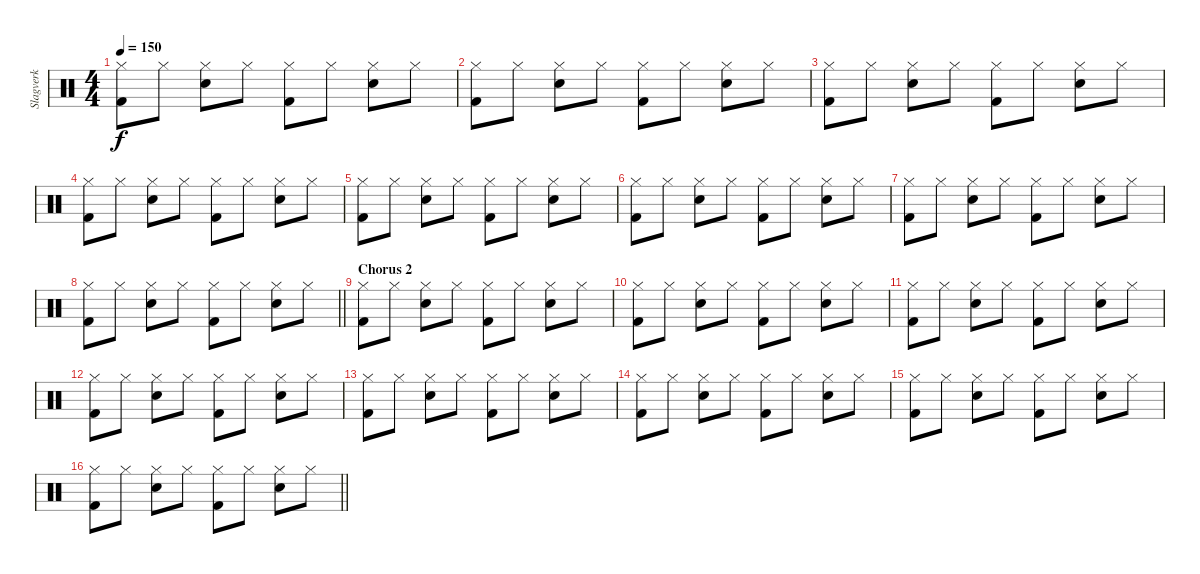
\track ("Slagverk" "Slagverk") {instrument percussion}
\staff {score}
\articulation defaults
\ts (4 4)
\tempo 150
\clef neutral
\ks c
("Kick (hit) 2" "Hi-Hat (closed)").8{dy f} "Hi-Hat (closed)".8 ("Snare (hit) 2" "Hi-Hat (closed)").8 "Hi-Hat (closed)".8 ("Kick (hit) 2" "Hi-Hat (closed)").8 "Hi-Hat (closed)".8 ("Snare (hit) 2" "Hi-Hat (closed)").8 "Hi-Hat (closed)".8 |
("Kick (hit) 2" "Hi-Hat (closed)").8 "Hi-Hat (closed)".8 ("Snare (hit) 2" "Hi-Hat (closed)").8 "Hi-Hat (closed)".8 ("Kick (hit) 2" "Hi-Hat (closed)").8 "Hi-Hat (closed)".8 ("Snare (hit) 2" "Hi-Hat (closed)").8 "Hi-Hat (closed)".8 |
("Kick (hit) 2" "Hi-Hat (closed)").8 "Hi-Hat (closed)".8 ("Snare (hit) 2" "Hi-Hat (closed)").8 "Hi-Hat (closed)".8 ("Kick (hit) 2" "Hi-Hat (closed)").8 "Hi-Hat (closed)".8 ("Snare (hit) 2" "Hi-Hat (closed)").8 "Hi-Hat (closed)".8 |
("Kick (hit) 2" "Hi-Hat (closed)").8 "Hi-Hat (closed)".8 ("Snare (hit) 2" "Hi-Hat (closed)").8 "Hi-Hat (closed)".8 ("Kick (hit) 2" "Hi-Hat (closed)").8 "Hi-Hat (closed)".8 ("Snare (hit) 2" "Hi-Hat (closed)").8 "Hi-Hat (closed)".8 |
("Kick (hit) 2" "Hi-Hat (closed)").8 "Hi-Hat (closed)".8 ("Snare (hit) 2" "Hi-Hat (closed)").8 "Hi-Hat (closed)".8 ("Kick (hit) 2" "Hi-Hat (closed)").8 "Hi-Hat (closed)".8 ("Snare (hit) 2" "Hi-Hat (closed)").8 "Hi-Hat (closed)".8 |
("Kick (hit) 2" "Hi-Hat (closed)").8 "Hi-Hat (closed)".8 ("Snare (hit) 2" "Hi-Hat (closed)").8 "Hi-Hat (closed)".8 ("Kick (hit) 2" "Hi-Hat (closed)").8 "Hi-Hat (closed)".8 ("Snare (hit) 2" "Hi-Hat (closed)").8 "Hi-Hat (closed)".8 |
("Kick (hit) 2" "Hi-Hat (closed)").8 "Hi-Hat (closed)".8 ("Snare (hit) 2" "Hi-Hat (closed)").8 "Hi-Hat (closed)".8 ("Kick (hit) 2" "Hi-Hat (closed)").8 "Hi-Hat (closed)".8 ("Snare (hit) 2" "Hi-Hat (closed)").8 "Hi-Hat (closed)".8 |
\barLineRight lightlight
("Kick (hit) 2" "Hi-Hat (closed)").8 "Hi-Hat (closed)".8 ("Snare (hit) 2" "Hi-Hat (closed)").8 "Hi-Hat (closed)".8 ("Kick (hit) 2" "Hi-Hat (closed)").8 "Hi-Hat (closed)".8 ("Snare (hit) 2" "Hi-Hat (closed)").8 "Hi-Hat (closed)".8 |
\section ("" "Chorus 2")
("Kick (hit) 2" "Hi-Hat (closed)").8 "Hi-Hat (closed)".8 ("Snare (hit) 2" "Hi-Hat (closed)").8 "Hi-Hat (closed)".8 ("Kick (hit) 2" "Hi-Hat (closed)").8 "Hi-Hat (closed)".8 ("Snare (hit) 2" "Hi-Hat (closed)").8 "Hi-Hat (closed)".8 |
("Kick (hit) 2" "Hi-Hat (closed)").8 "Hi-Hat (closed)".8 ("Snare (hit) 2" "Hi-Hat (closed)").8 "Hi-Hat (closed)".8 ("Kick (hit) 2" "Hi-Hat (closed)").8 "Hi-Hat (closed)".8 ("Snare (hit) 2" "Hi-Hat (closed)").8 "Hi-Hat (closed)".8 |
("Kick (hit) 2" "Hi-Hat (closed)").8 "Hi-Hat (closed)".8 ("Snare (hit) 2" "Hi-Hat (closed)").8 "Hi-Hat (closed)".8 ("Kick (hit) 2" "Hi-Hat (closed)").8 "Hi-Hat (closed)".8 ("Snare (hit) 2" "Hi-Hat (closed)").8 "Hi-Hat (closed)".8 |
("Kick (hit) 2" "Hi-Hat (closed)").8 "Hi-Hat (closed)".8 ("Snare (hit) 2" "Hi-Hat (closed)").8 "Hi-Hat (closed)".8 ("Kick (hit) 2" "Hi-Hat (closed)").8 "Hi-Hat (closed)".8 ("Snare (hit) 2" "Hi-Hat (closed)").8 "Hi-Hat (closed)".8 |
("Kick (hit) 2" "Hi-Hat (closed)").8 "Hi-Hat (closed)".8 ("Snare (hit) 2" "Hi-Hat (closed)").8 "Hi-Hat (closed)".8 ("Kick (hit) 2" "Hi-Hat (closed)").8 "Hi-Hat (closed)".8 ("Snare (hit) 2" "Hi-Hat (closed)").8 "Hi-Hat (closed)".8 |
("Kick (hit) 2" "Hi-Hat (closed)").8 "Hi-Hat (closed)".8 ("Snare (hit) 2" "Hi-Hat (closed)").8 "Hi-Hat (closed)".8 ("Kick (hit) 2" "Hi-Hat (closed)").8 "Hi-Hat (closed)".8 ("Snare (hit) 2" "Hi-Hat (closed)").8 "Hi-Hat (closed)".8 |
("Kick (hit) 2" "Hi-Hat (closed)").8 "Hi-Hat (closed)".8 ("Snare (hit) 2" "Hi-Hat (closed)").8 "Hi-Hat (closed)".8 ("Kick (hit) 2" "Hi-Hat (closed)").8 "Hi-Hat (closed)".8 ("Snare (hit) 2" "Hi-Hat (closed)").8 "Hi-Hat (closed)".8 |
\barLineRight lightlight
("Kick (hit) 2" "Hi-Hat (closed)").8 "Hi-Hat (closed)".8 ("Snare (hit) 2" "Hi-Hat (closed)").8 "Hi-Hat (closed)".8 ("Kick (hit) 2" "Hi-Hat (closed)").8 "Hi-Hat (closed)".8 ("Snare (hit) 2" "Hi-Hat (closed)").8 "Hi-Hat (closed)".8
